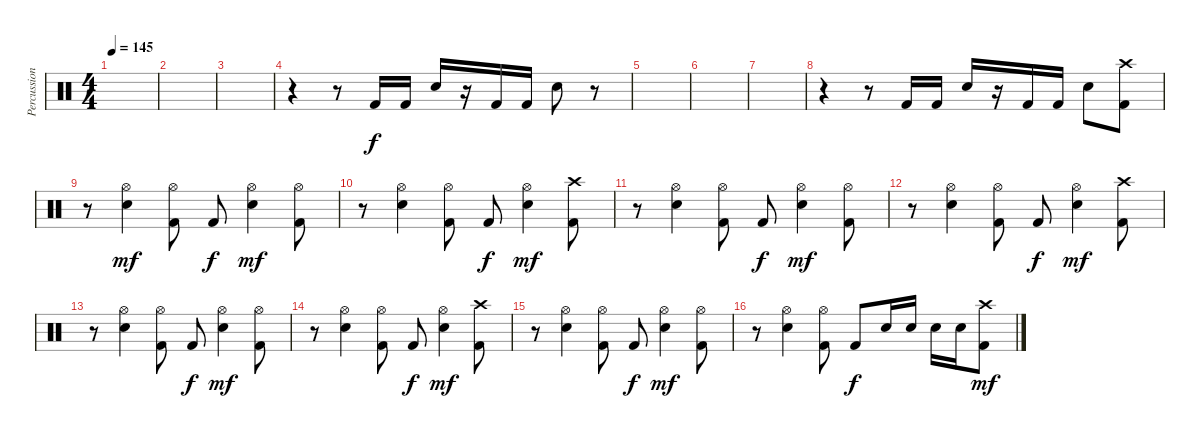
\track ("Percussioni" "Percussion") {instrument percussion}
\staff {score}
\articulation defaults
\ts (4 4)
\tempo 145
\clef neutral
\ks c
|
|
|
r.4 r.8 "Kick (hit) 2".16 "Kick (hit) 2".16 "Snare (hit) 2".16 r.16 "Kick (hit) 2".16 "Kick (hit) 2".16 "Snare (hit) 2".8 r.8 |
|
|
|
r.4 r.8 "Kick (hit) 2".16 "Kick (hit) 2".16 "Snare (hit) 2".16 r.16 "Kick (hit) 2".16 "Kick (hit) 2".16 "Snare (hit) 2".8 ("Kick (hit) 2" "Crash high (hit)").8 |
r.8 ("Snare (hit) 2" "Hi-Hat (open)").4{dy mf} ("Kick (hit) 2" "Hi-Hat (open)").8 "Kick (hit) 2".8{dy f} ("Snare (hit) 2" "Hi-Hat (open)").4{dy mf} ("Kick (hit) 2" "Hi-Hat (open)").8 |
r.8 ("Snare (hit) 2" "Hi-Hat (open)").4 ("Kick (hit) 2" "Hi-Hat (open)").8 "Kick (hit) 2".8{dy f} ("Snare (hit) 2" "Hi-Hat (open)").4{dy mf} ("Kick (hit) 2" "Crash high (hit)").8 |
r.8 ("Snare (hit) 2" "Hi-Hat (open)").4 ("Kick (hit) 2" "Hi-Hat (open)").8 "Kick (hit) 2".8{dy f} ("Snare (hit) 2" "Hi-Hat (open)").4{dy mf} ("Kick (hit) 2" "Hi-Hat (open)").8 |
r.8 ("Snare (hit) 2" "Hi-Hat (open)").4 ("Kick (hit) 2" "Hi-Hat (open)").8 "Kick (hit) 2".8{dy f} ("Snare (hit) 2" "Hi-Hat (open)").4{dy mf} ("Kick (hit) 2" "Crash high (hit)").8 |
r.8 ("Snare (hit) 2" "Hi-Hat (open)").4 ("Kick (hit) 2" "Hi-Hat (open)").8 "Kick (hit) 2".8{dy f} ("Snare (hit) 2" "Hi-Hat (open)").4{dy mf} ("Kick (hit) 2" "Hi-Hat (open)").8 |
r.8 ("Snare (hit) 2" "Hi-Hat (open)").4 ("Kick (hit) 2" "Hi-Hat (open)").8 "Kick (hit) 2".8{dy f} ("Snare (hit) 2" "Hi-Hat (open)").4{dy mf} ("Kick (hit) 2" "Crash high (hit)").8 |
r.8 ("Snare (hit) 2" "Hi-Hat (open)").4 ("Kick (hit) 2" "Hi-Hat (open)").8 "Kick (hit) 2".8{dy f} ("Snare (hit) 2" "Hi-Hat (open)").4{dy mf} ("Kick (hit) 2" "Hi-Hat (open)").8 |
r.8 ("Snare (hit) 2" "Hi-Hat (open)").4 ("Kick (hit) 2" "Hi-Hat (open)").8 "Kick (hit) 2".8{dy f} "Snare (hit) 2".16 "Snare (hit) 2".16 "Snare (hit) 2".16 "Snare (hit) 2".16 ("Kick (hit) 2" "Crash high (hit)").8{dy mf}
